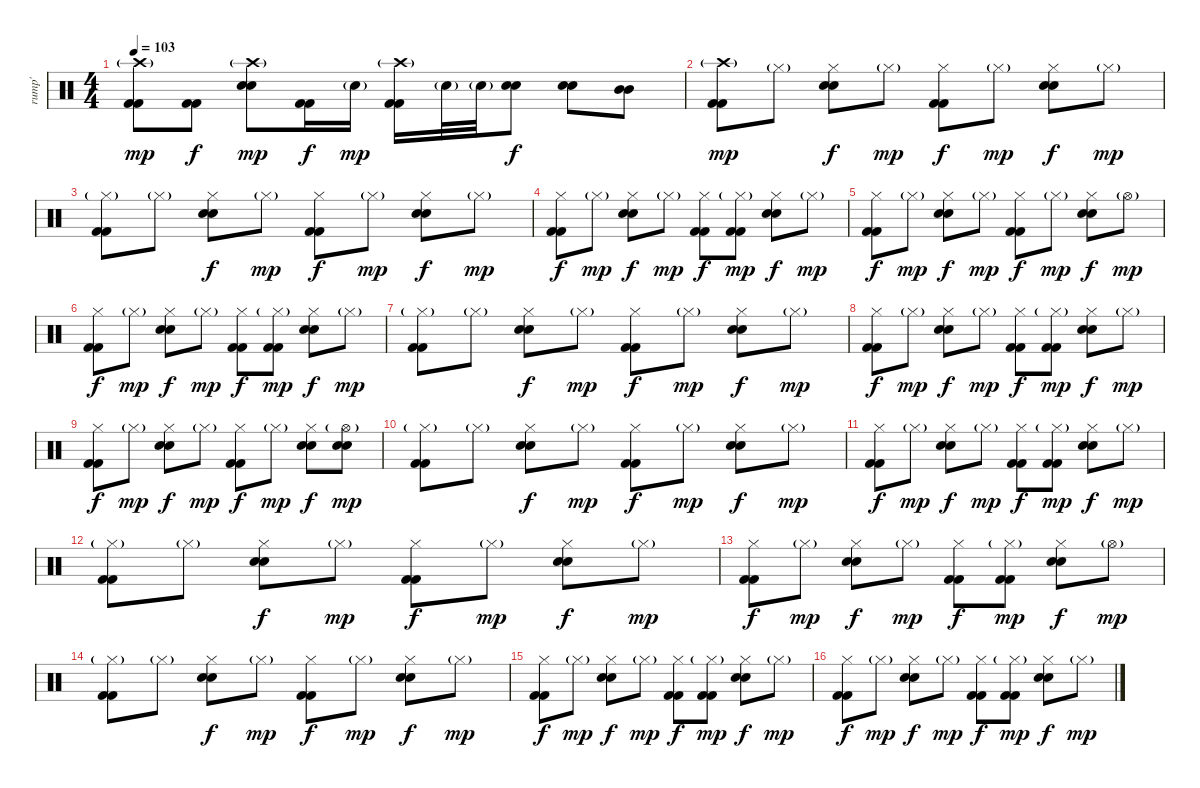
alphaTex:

\track ("rump'" "rump'") {instrument percussion}
\staff {score}
\articulation defaults
\ts (4 4)
\tempo 103
\clef neutral
\ks c
("Crash high (hit)"{g} "Kick (hit) 2" "Kick (hit) 2").8{dy mp} ("Kick (hit) 2" "Kick (hit) 2").8{dy f} ("Crash high (hit)"{g} "Electric Snare (hit)" "Electric Snare (hit)").8{dy mp} ("Kick (hit) 2" "Kick (hit) 2").16{dy f} "Electric Snare (hit)"{g}.16{dy mp} ("Crash high (hit)"{g} "Kick (hit) 2" "Kick (hit) 2").16 "Electric Snare (hit)"{g}.32 "Electric Snare (hit)"{g}.32 ("Electric Snare (hit)" "Electric Snare (hit)").8{dy f} ("Electric Snare (hit)" "Electric Snare (hit)").8 ("Mid Tom (hit)" "Mid Tom (hit)").8 |
("Crash high (hit)"{g} "Kick (hit) 2" "Kick (hit) 2").8{dy mp} "Hi-Hat (closed)"{g}.8 ("Hi-Hat (closed)" "Electric Snare (hit)" "Electric Snare (hit)").8{dy f} "Hi-Hat (closed)"{g}.8{dy mp} ("Hi-Hat (closed)" "Kick (hit) 2" "Kick (hit) 2").8{dy f} "Hi-Hat (closed)"{g}.8{dy mp} ("Hi-Hat (closed)" "Electric Snare (hit)" "Electric Snare (hit)").8{dy f} "Hi-Hat (closed)"{g}.8{dy mp} |
("Hi-Hat (closed)"{g} "Kick (hit) 2" "Kick (hit) 2").8 "Hi-Hat (closed)"{g}.8 ("Hi-Hat (closed)" "Electric Snare (hit)" "Electric Snare (hit)").8{dy f} "Hi-Hat (closed)"{g}.8{dy mp} ("Hi-Hat (closed)" "Kick (hit) 2" "Kick (hit) 2").8{dy f} "Hi-Hat (closed)"{g}.8{dy mp} ("Hi-Hat (closed)" "Electric Snare (hit)" "Electric Snare (hit)").8{dy f} "Hi-Hat (closed)"{g}.8{dy mp} |
("Hi-Hat (closed)" "Kick (hit) 2" "Kick (hit) 2").8{dy f} "Hi-Hat (closed)"{g}.8{dy mp} ("Hi-Hat (closed)" "Electric Snare (hit)" "Electric Snare (hit)").8{dy f} "Hi-Hat (closed)"{g}.8{dy mp} ("Hi-Hat (closed)" "Kick (hit) 2" "Kick (hit) 2").8{dy f} ("Hi-Hat (closed)"{g} "Kick (hit) 2" "Kick (hit) 2").8{dy mp} ("Hi-Hat (closed)" "Electric Snare (hit)" "Electric Snare (hit)").8{dy f} "Hi-Hat (closed)"{g}.8{dy mp} |
("Hi-Hat (closed)" "Kick (hit) 2" "Kick (hit) 2").8{dy f} "Hi-Hat (closed)"{g}.8{dy mp} ("Hi-Hat (closed)" "Electric Snare (hit)" "Electric Snare (hit)").8{dy f} "Hi-Hat (closed)"{g}.8{dy mp} ("Hi-Hat (closed)" "Kick (hit) 2" "Kick (hit) 2").8{dy f} "Hi-Hat (closed)"{g}.8{dy mp} ("Hi-Hat (closed)" "Electric Snare (hit)" "Electric Snare (hit)").8{dy f} "Hi-Hat (open)"{g}.8{dy mp} |
("Hi-Hat (closed)" "Kick (hit) 2" "Kick (hit) 2").8{dy f} "Hi-Hat (closed)"{g}.8{dy mp} ("Hi-Hat (closed)" "Electric Snare (hit)" "Electric Snare (hit)").8{dy f} "Hi-Hat (closed)"{g}.8{dy mp} ("Hi-Hat (closed)" "Kick (hit) 2" "Kick (hit) 2").8{dy f} ("Hi-Hat (closed)"{g} "Kick (hit) 2" "Kick (hit) 2").8{dy mp} ("Hi-Hat (closed)" "Electric Snare (hit)" "Electric Snare (hit)").8{dy f} "Hi-Hat (closed)"{g}.8{dy mp} |
("Hi-Hat (closed)"{g} "Kick (hit) 2" "Kick (hit) 2").8 "Hi-Hat (closed)"{g}.8 ("Hi-Hat (closed)" "Electric Snare (hit)" "Electric Snare (hit)").8{dy f} "Hi-Hat (closed)"{g}.8{dy mp} ("Hi-Hat (closed)" "Kick (hit) 2" "Kick (hit) 2").8{dy f} "Hi-Hat (closed)"{g}.8{dy mp} ("Hi-Hat (closed)" "Electric Snare (hit)" "Electric Snare (hit)").8{dy f} "Hi-Hat (closed)"{g}.8{dy mp} |
("Hi-Hat (closed)" "Kick (hit) 2" "Kick (hit) 2").8{dy f} "Hi-Hat (closed)"{g}.8{dy mp} ("Hi-Hat (closed)" "Electric Snare (hit)" "Electric Snare (hit)").8{dy f} "Hi-Hat (closed)"{g}.8{dy mp} ("Hi-Hat (closed)" "Kick (hit) 2" "Kick (hit) 2").8{dy f} ("Hi-Hat (closed)"{g} "Kick (hit) 2" "Kick (hit) 2").8{dy mp} ("Hi-Hat (closed)" "Electric Snare (hit)" "Electric Snare (hit)").8{dy f} "Hi-Hat (closed)"{g}.8{dy mp} |
("Hi-Hat (closed)" "Kick (hit) 2" "Kick (hit) 2").8{dy f} "Hi-Hat (closed)"{g}.8{dy mp} ("Hi-Hat (closed)" "Electric Snare (hit)" "Electric Snare (hit)").8{dy f} "Hi-Hat (closed)"{g}.8{dy mp} ("Hi-Hat (closed)" "Kick (hit) 2" "Kick (hit) 2").8{dy f} "Hi-Hat (closed)"{g}.8{dy mp} ("Hi-Hat (closed)" "Electric Snare (hit)" "Electric Snare (hit)").8{dy f} ("Hi-Hat (open)"{g} "Electric Snare (hit)" "Electric Snare (hit)").8{dy mp} |
("Hi-Hat (closed)"{g} "Kick (hit) 2" "Kick (hit) 2").8 "Hi-Hat (closed)"{g}.8 ("Hi-Hat (closed)" "Electric Snare (hit)" "Electric Snare (hit)").8{dy f} "Hi-Hat (closed)"{g}.8{dy mp} ("Hi-Hat (closed)" "Kick (hit) 2" "Kick (hit) 2").8{dy f} "Hi-Hat (closed)"{g}.8{dy mp} ("Hi-Hat (closed)" "Electric Snare (hit)" "Electric Snare (hit)").8{dy f} "Hi-Hat (closed)"{g}.8{dy mp} |
("Hi-Hat (closed)" "Kick (hit) 2" "Kick (hit) 2").8{dy f} "Hi-Hat (closed)"{g}.8{dy mp} ("Hi-Hat (closed)" "Electric Snare (hit)" "Electric Snare (hit)").8{dy f} "Hi-Hat (closed)"{g}.8{dy mp} ("Hi-Hat (closed)" "Kick (hit) 2" "Kick (hit) 2").8{dy f} ("Hi-Hat (closed)"{g} "Kick (hit) 2" "Kick (hit) 2").8{dy mp} ("Hi-Hat (closed)" "Electric Snare (hit)" "Electric Snare (hit)").8{dy f} "Hi-Hat (closed)"{g}.8{dy mp} |
("Hi-Hat (closed)"{g} "Kick (hit) 2" "Kick (hit) 2").8 "Hi-Hat (closed)"{g}.8 ("Hi-Hat (closed)" "Electric Snare (hit)" "Electric Snare (hit)").8{dy f} "Hi-Hat (closed)"{g}.8{dy mp} ("Hi-Hat (closed)" "Kick (hit) 2" "Kick (hit) 2").8{dy f} "Hi-Hat (closed)"{g}.8{dy mp} ("Hi-Hat (closed)" "Electric Snare (hit)" "Electric Snare (hit)").8{dy f} "Hi-Hat (closed)"{g}.8{dy mp} |
("Hi-Hat (closed)" "Kick (hit) 2" "Kick (hit) 2").8{dy f} "Hi-Hat (closed)"{g}.8{dy mp} ("Hi-Hat (closed)" "Electric Snare (hit)" "Electric Snare (hit)").8{dy f} "Hi-Hat (closed)"{g}.8{dy mp} ("Hi-Hat (closed)" "Kick (hit) 2" "Kick (hit) 2").8{dy f} ("Hi-Hat (closed)"{g} "Kick (hit) 2" "Kick (hit) 2").8{dy mp} ("Hi-Hat (closed)" "Electric Snare (hit)" "Electric Snare (hit)").8{dy f} "Hi-Hat (open)"{g}.8{dy mp} |
("Hi-Hat (closed)"{g} "Kick (hit) 2" "Kick (hit) 2").8 "Hi-Hat (closed)"{g}.8 ("Hi-Hat (closed)" "Electric Snare (hit)" "Electric Snare (hit)").8{dy f} "Hi-Hat (closed)"{g}.8{dy mp} ("Hi-Hat (closed)" "Kick (hit) 2" "Kick (hit) 2").8{dy f} "Hi-Hat (closed)"{g}.8{dy mp} ("Hi-Hat (closed)" "Electric Snare (hit)" "Electric Snare (hit)").8{dy f} "Hi-Hat (closed)"{g}.8{dy mp} |
("Hi-Hat (closed)" "Kick (hit) 2" "Kick (hit) 2").8{dy f} "Hi-Hat (closed)"{g}.8{dy mp} ("Hi-Hat (closed)" "Electric Snare (hit)" "Electric Snare (hit)").8{dy f} "Hi-Hat (closed)"{g}.8{dy mp} ("Hi-Hat (closed)" "Kick (hit) 2" "Kick (hit) 2").8{dy f} ("Hi-Hat (closed)"{g} "Kick (hit) 2" "Kick (hit) 2").8{dy mp} ("Hi-Hat (closed)" "Electric Snare (hit)" "Electric Snare (hit)").8{dy f} "Hi-Hat (closed)"{g}.8{dy mp} |
("Hi-Hat (closed)" "Kick (hit) 2" "Kick (hit) 2").8{dy f} "Hi-Hat (closed)"{g}.8{dy mp} ("Hi-Hat (closed)" "Electric Snare (hit)" "Electric Snare (hit)").8{dy f} "Hi-Hat (closed)"{g}.8{dy mp} ("Hi-Hat (closed)" "Kick (hit) 2" "Kick (hit) 2").8{dy f} ("Hi-Hat (closed)"{g} "Kick (hit) 2" "Kick (hit) 2").8{dy mp} ("Hi-Hat (closed)" "Electric Snare (hit)" "Electric Snare (hit)").8{dy f} "Hi-Hat (closed)"{g}.8{dy mp}
